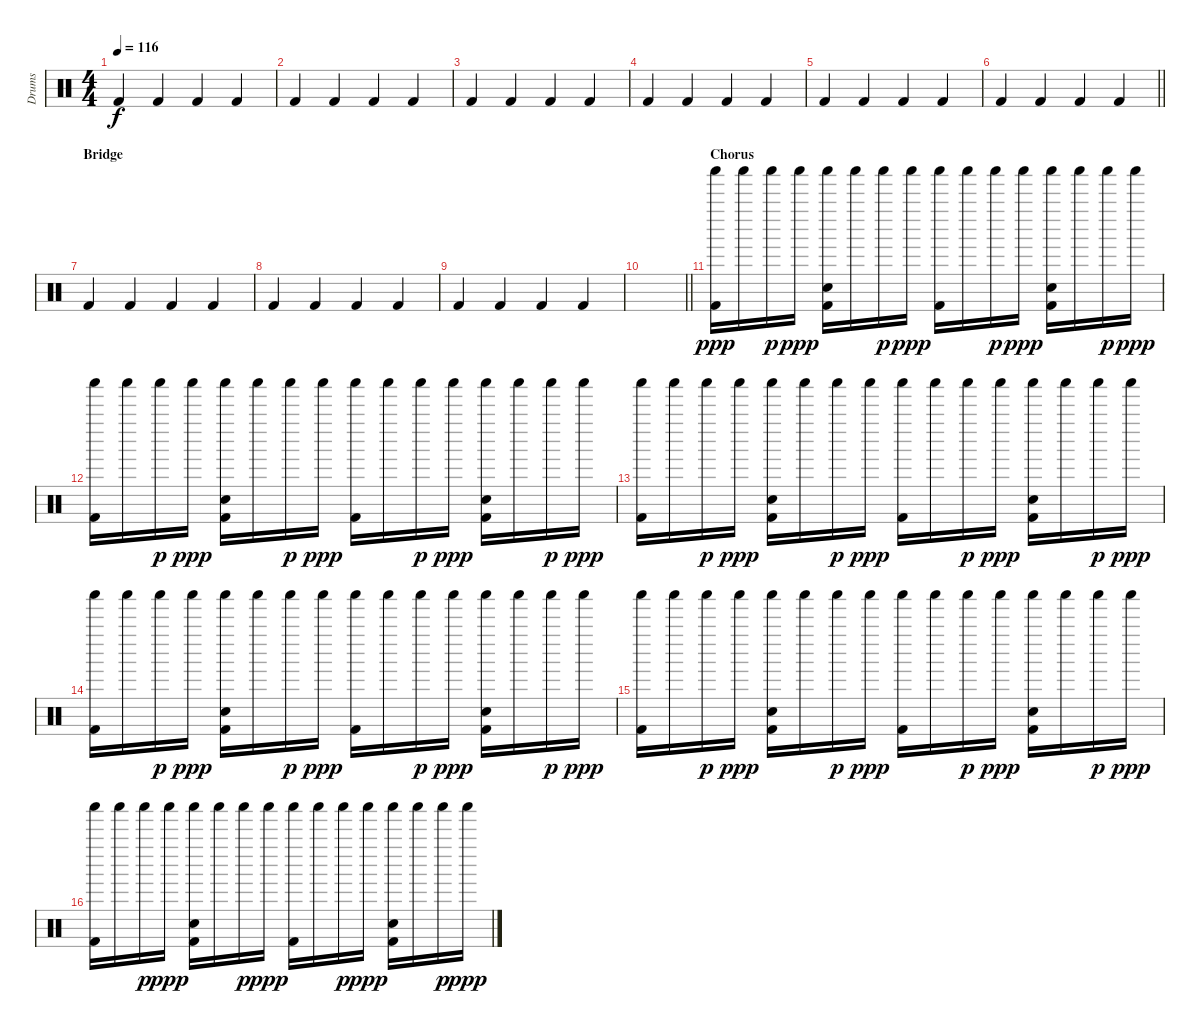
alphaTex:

\track ("Drums" "Drums") {mute instrument percussion}
\staff {score}
\articulation defaults
\ts (4 4)
\tempo 116
\clef neutral
\ks c "Kick (hit) 2".4{dy f} "Kick (hit) 2".4 "Kick (hit) 2".4 "Kick (hit) 2".4
|
"Kick (hit) 2".4 "Kick (hit) 2".4 "Kick (hit) 2".4 "Kick (hit) 2".4 |
"Kick (hit) 2".4 "Kick (hit) 2".4 "Kick (hit) 2".4 "Kick (hit) 2".4 |
"Kick (hit) 2".4 "Kick (hit) 2".4 "Kick (hit) 2".4 "Kick (hit) 2".4 |
"Kick (hit) 2".4 "Kick (hit) 2".4 "Kick (hit) 2".4 "Kick (hit) 2".4 |
\barLineRight lightlight "Kick (hit) 2".4 "Kick (hit) 2".4 "Kick (hit) 2".4 "Kick (hit) 2".4
|
\section ("" "Bridge")
"Kick (hit) 2".4 "Kick (hit) 2".4 "Kick (hit) 2".4 "Kick (hit) 2".4 |
"Kick (hit) 2".4 "Kick (hit) 2".4 "Kick (hit) 2".4 "Kick (hit) 2".4 |
"Kick (hit) 2".4 "Kick (hit) 2".4 "Kick (hit) 2".4 "Kick (hit) 2".4 |
\barLineRight lightlight
|
\section ("" "Chorus")
("Shaker (hit)" "Kick (hit) 2").16{dy ppp} "Shaker (hit)".16 "Shaker (hit)".16{dy p} "Shaker (hit)".16{dy ppp} ("Shaker (hit)" "Snare (hit) 2" "Kick (hit) 2").16 "Shaker (hit)".16 "Shaker (hit)".16{dy p} "Shaker (hit)".16{dy ppp} ("Shaker (hit)" "Kick (hit) 2").16 "Shaker (hit)".16 "Shaker (hit)".16{dy p} "Shaker (hit)".16{dy ppp} ("Shaker (hit)" "Snare (hit) 2" "Kick (hit) 2").16 "Shaker (hit)".16 "Shaker (hit)".16{dy p} "Shaker (hit)".16{dy ppp} |
("Shaker (hit)" "Kick (hit) 2").16 "Shaker (hit)".16 "Shaker (hit)".16{dy p} "Shaker (hit)".16{dy ppp} ("Shaker (hit)" "Snare (hit) 2" "Kick (hit) 2").16 "Shaker (hit)".16 "Shaker (hit)".16{dy p} "Shaker (hit)".16{dy ppp} ("Shaker (hit)" "Kick (hit) 2").16 "Shaker (hit)".16 "Shaker (hit)".16{dy p} "Shaker (hit)".16{dy ppp} ("Shaker (hit)" "Snare (hit) 2" "Kick (hit) 2").16 "Shaker (hit)".16 "Shaker (hit)".16{dy p} "Shaker (hit)".16{dy ppp} |
("Shaker (hit)" "Kick (hit) 2").16 "Shaker (hit)".16 "Shaker (hit)".16{dy p} "Shaker (hit)".16{dy ppp} ("Shaker (hit)" "Snare (hit) 2" "Kick (hit) 2").16 "Shaker (hit)".16 "Shaker (hit)".16{dy p} "Shaker (hit)".16{dy ppp} ("Shaker (hit)" "Kick (hit) 2").16 "Shaker (hit)".16 "Shaker (hit)".16{dy p} "Shaker (hit)".16{dy ppp} ("Shaker (hit)" "Snare (hit) 2" "Kick (hit) 2").16 "Shaker (hit)".16 "Shaker (hit)".16{dy p} "Shaker (hit)".16{dy ppp} |
("Shaker (hit)" "Kick (hit) 2").16 "Shaker (hit)".16 "Shaker (hit)".16{dy p} "Shaker (hit)".16{dy ppp} ("Shaker (hit)" "Snare (hit) 2" "Kick (hit) 2").16 "Shaker (hit)".16 "Shaker (hit)".16{dy p} "Shaker (hit)".16{dy ppp} ("Shaker (hit)" "Kick (hit) 2").16 "Shaker (hit)".16 "Shaker (hit)".16{dy p} "Shaker (hit)".16{dy ppp} ("Shaker (hit)" "Snare (hit) 2" "Kick (hit) 2").16 "Shaker (hit)".16 "Shaker (hit)".16{dy p} "Shaker (hit)".16{dy ppp} |
("Shaker (hit)" "Kick (hit) 2").16 "Shaker (hit)".16 "Shaker (hit)".16{dy p} "Shaker (hit)".16{dy ppp} ("Shaker (hit)" "Snare (hit) 2" "Kick (hit) 2").16 "Shaker (hit)".16 "Shaker (hit)".16{dy p} "Shaker (hit)".16{dy ppp} ("Shaker (hit)" "Kick (hit) 2").16 "Shaker (hit)".16 "Shaker (hit)".16{dy p} "Shaker (hit)".16{dy ppp} ("Shaker (hit)" "Snare (hit) 2" "Kick (hit) 2").16 "Shaker (hit)".16 "Shaker (hit)".16{dy p} "Shaker (hit)".16{dy ppp} |
("Shaker (hit)" "Kick (hit) 2").16 "Shaker (hit)".16 "Shaker (hit)".16{dy p} "Shaker (hit)".16{dy ppp} ("Shaker (hit)" "Snare (hit) 2" "Kick (hit) 2").16 "Shaker (hit)".16 "Shaker (hit)".16{dy p} "Shaker (hit)".16{dy ppp} ("Shaker (hit)" "Kick (hit) 2").16 "Shaker (hit)".16 "Shaker (hit)".16{dy p} "Shaker (hit)".16{dy ppp} ("Shaker (hit)" "Snare (hit) 2" "Kick (hit) 2").16 "Shaker (hit)".16 "Shaker (hit)".16{dy p} "Shaker (hit)".16{dy ppp}
